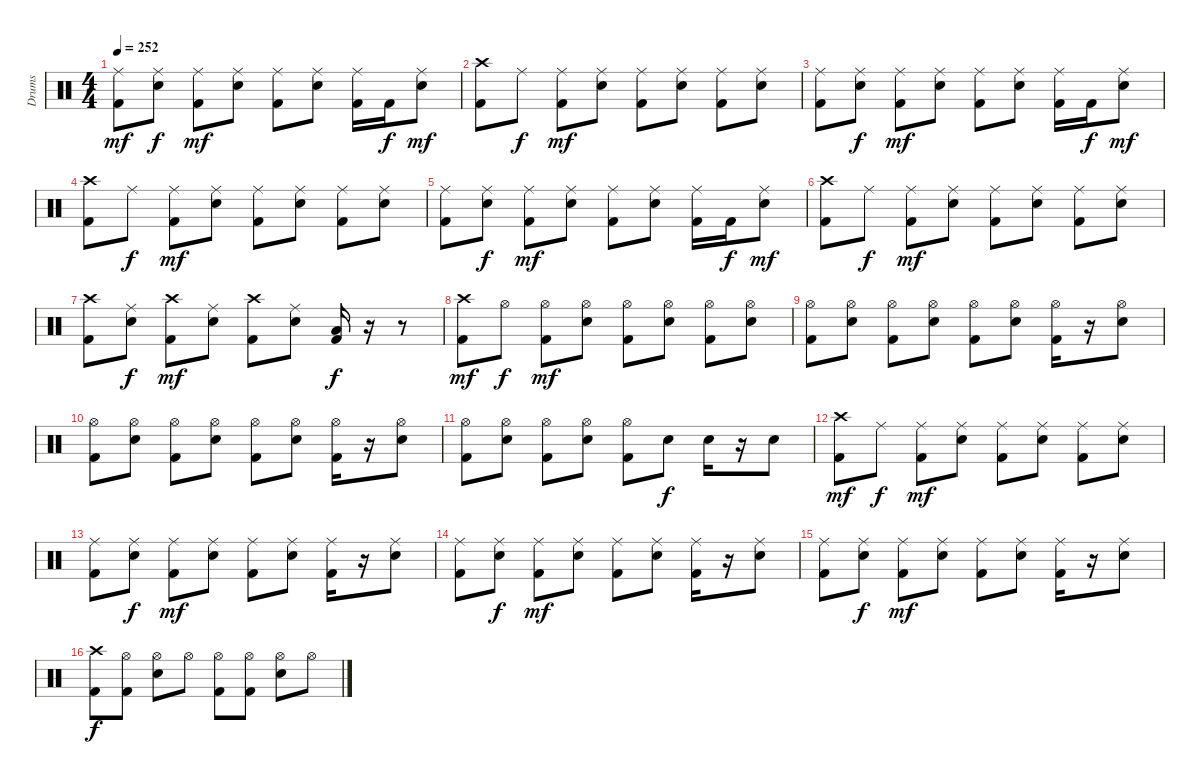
\track ("Drums" "Drums") {instrument percussion}
\staff {score}
\articulation defaults
\ts (4 4)
\tempo 252
\clef neutral
\ks c
("Ride (middle)" "Kick (hit) 2").8{dy mf} ("Ride (middle)" "Snare (hit) 2").8{dy f} ("Ride (middle)" "Kick (hit) 2").8{dy mf} ("Ride (middle)" "Snare (hit) 2").8 ("Ride (middle)" "Kick (hit) 2").8 ("Ride (middle)" "Snare (hit) 2").8 ("Ride (middle)" "Kick (hit) 2").16 "Kick (hit) 2".16{dy f} ("Ride (middle)" "Snare (hit) 2").8{dy mf} |
("Crash high (hit)" "Kick (hit) 2").8 "Ride (middle)".8{dy f} ("Ride (middle)" "Kick (hit) 2").8{dy mf} ("Ride (middle)" "Snare (hit) 2").8 ("Ride (middle)" "Kick (hit) 2").8 ("Ride (middle)" "Snare (hit) 2").8 ("Ride (middle)" "Kick (hit) 2").8 ("Ride (middle)" "Snare (hit) 2").8 |
("Ride (middle)" "Kick (hit) 2").8 ("Ride (middle)" "Snare (hit) 2").8{dy f} ("Ride (middle)" "Kick (hit) 2").8{dy mf} ("Ride (middle)" "Snare (hit) 2").8 ("Ride (middle)" "Kick (hit) 2").8 ("Ride (middle)" "Snare (hit) 2").8 ("Ride (middle)" "Kick (hit) 2").16 "Kick (hit) 2".16{dy f} ("Ride (middle)" "Snare (hit) 2").8{dy mf} |
("Crash high (hit)" "Kick (hit) 2").8 "Ride (middle)".8{dy f} ("Ride (middle)" "Kick (hit) 2").8{dy mf} ("Ride (middle)" "Snare (hit) 2").8 ("Ride (middle)" "Kick (hit) 2").8 ("Ride (middle)" "Snare (hit) 2").8 ("Ride (middle)" "Kick (hit) 2").8 ("Ride (middle)" "Snare (hit) 2").8 |
("Ride (middle)" "Kick (hit) 2").8 ("Ride (middle)" "Snare (hit) 2").8{dy f} ("Ride (middle)" "Kick (hit) 2").8{dy mf} ("Ride (middle)" "Snare (hit) 2").8 ("Ride (middle)" "Kick (hit) 2").8 ("Ride (middle)" "Snare (hit) 2").8 ("Ride (middle)" "Kick (hit) 2").16 "Kick (hit) 2".16{dy f} ("Ride (middle)" "Snare (hit) 2").8{dy mf} |
("Crash high (hit)" "Kick (hit) 2").8 "Ride (middle)".8{dy f} ("Ride (middle)" "Kick (hit) 2").8{dy mf} ("Ride (middle)" "Snare (hit) 2").8 ("Ride (middle)" "Kick (hit) 2").8 ("Ride (middle)" "Snare (hit) 2").8 ("Ride (middle)" "Kick (hit) 2").8 ("Ride (middle)" "Snare (hit) 2").8 |
("Crash high (hit)" "Kick (hit) 2").8 ("Ride (middle)" "Snare (hit) 2").8{dy f} ("Crash high (hit)" "Kick (hit) 2").8{dy mf} ("Ride (middle)" "Snare (hit) 2").8 ("Crash high (hit)" "Kick (hit) 2").8 ("Ride (middle)" "Snare (hit) 2").8 ("Kick (hit) 2" "Low Floor Tom (hit)").16{dy f} r.16 r.8 |
("Crash high (hit)" "Kick (hit) 2").8{dy mf} "Hi-Hat (open)".8{dy f} ("Hi-Hat (open)" "Kick (hit) 2").8{dy mf} ("Hi-Hat (open)" "Snare (hit) 2").8 ("Hi-Hat (open)" "Kick (hit) 2").8 ("Hi-Hat (open)" "Snare (hit) 2").8 ("Hi-Hat (open)" "Kick (hit) 2").8 ("Hi-Hat (open)" "Snare (hit) 2").8 |
("Hi-Hat (open)" "Kick (hit) 2").8 ("Hi-Hat (open)" "Snare (hit) 2").8 ("Hi-Hat (open)" "Kick (hit) 2").8 ("Hi-Hat (open)" "Snare (hit) 2").8 ("Hi-Hat (open)" "Kick (hit) 2").8 ("Hi-Hat (open)" "Snare (hit) 2").8 ("Hi-Hat (open)" "Kick (hit) 2").16 r.16 ("Hi-Hat (open)" "Snare (hit) 2").8 |
("Hi-Hat (open)" "Kick (hit) 2").8 ("Hi-Hat (open)" "Snare (hit) 2").8 ("Hi-Hat (open)" "Kick (hit) 2").8 ("Hi-Hat (open)" "Snare (hit) 2").8 ("Hi-Hat (open)" "Kick (hit) 2").8 ("Hi-Hat (open)" "Snare (hit) 2").8 ("Hi-Hat (open)" "Kick (hit) 2").16 r.16 ("Hi-Hat (open)" "Snare (hit) 2").8 |
("Hi-Hat (open)" "Kick (hit) 2").8 ("Hi-Hat (open)" "Snare (hit) 2").8 ("Hi-Hat (open)" "Kick (hit) 2").8 ("Hi-Hat (open)" "Snare (hit) 2").8 ("Hi-Hat (open)" "Kick (hit) 2").8 "Snare (hit) 2".8{dy f} "Snare (hit) 2".16 r.16 "Snare (hit) 2".8 |
("Crash high (hit)" "Kick (hit) 2").8{dy mf} "Ride (middle)".8{dy f} ("Ride (middle)" "Kick (hit) 2").8{dy mf} ("Ride (middle)" "Snare (hit) 2").8 ("Ride (middle)" "Kick (hit) 2").8 ("Ride (middle)" "Snare (hit) 2").8 ("Ride (middle)" "Kick (hit) 2").8 ("Ride (middle)" "Snare (hit) 2").8 |
("Ride (middle)" "Kick (hit) 2").8 ("Ride (middle)" "Snare (hit) 2").8{dy f} ("Ride (middle)" "Kick (hit) 2").8{dy mf} ("Ride (middle)" "Snare (hit) 2").8 ("Ride (middle)" "Kick (hit) 2").8 ("Ride (middle)" "Snare (hit) 2").8 ("Ride (middle)" "Kick (hit) 2").16 r.16 ("Ride (middle)" "Snare (hit) 2").8 |
("Ride (middle)" "Kick (hit) 2").8 ("Ride (middle)" "Snare (hit) 2").8{dy f} ("Ride (middle)" "Kick (hit) 2").8{dy mf} ("Ride (middle)" "Snare (hit) 2").8 ("Ride (middle)" "Kick (hit) 2").8 ("Ride (middle)" "Snare (hit) 2").8 ("Ride (middle)" "Kick (hit) 2").16 r.16 ("Ride (middle)" "Snare (hit) 2").8 |
("Ride (middle)" "Kick (hit) 2").8 ("Ride (middle)" "Snare (hit) 2").8{dy f} ("Ride (middle)" "Kick (hit) 2").8{dy mf} ("Ride (middle)" "Snare (hit) 2").8 ("Ride (middle)" "Kick (hit) 2").8 ("Ride (middle)" "Snare (hit) 2").8 ("Ride (middle)" "Kick (hit) 2").16 r.16 ("Ride (middle)" "Snare (hit) 2").8 |
("Crash high (hit)" "Kick (hit) 2").8{dy f} ("Hi-Hat (open)" "Kick (hit) 2").8 ("Hi-Hat (open)" "Snare (hit) 2").8 "Hi-Hat (open)".8 ("Hi-Hat (open)" "Kick (hit) 2").8 ("Hi-Hat (open)" "Kick (hit) 2").8 ("Hi-Hat (open)" "Snare (hit) 2").8 "Hi-Hat (open)".8
